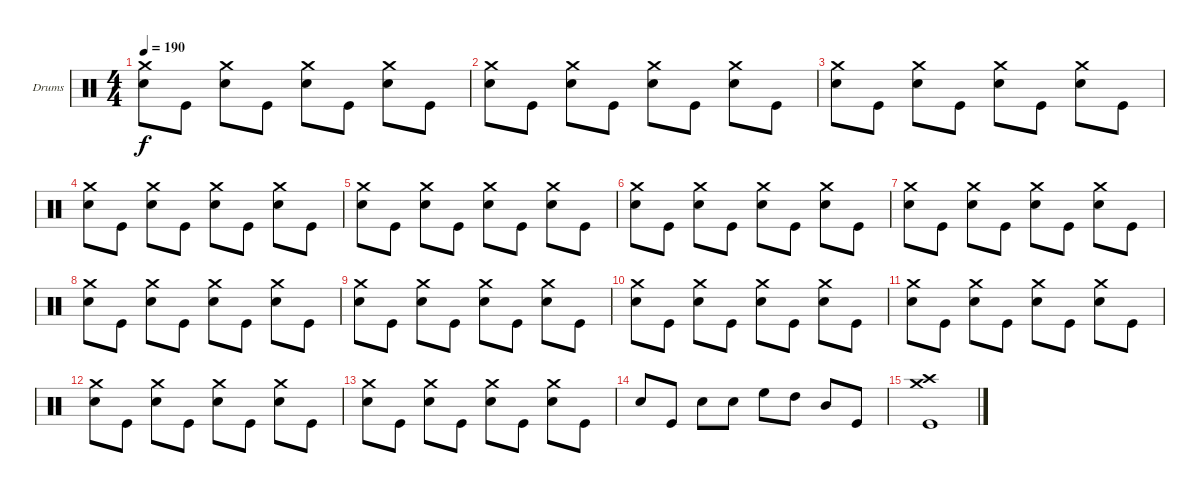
\bracketExtendMode groupsimilarinstruments
\firstSystemTrackNameOrientation horizontal
\otherSystemsTrackNameOrientation horizontal
\track ("Drumkit" "Drums") {instrument percussion}
\staff {score}
\articulation defaults
\ts (4 4)
\tempo 190
\clef neutral
\ks c
("Snare (hit) 2" "Crash medium (hit)").8{dy f} "Kick (hit)".8 ("Snare (hit) 2" "Crash medium (hit)").8 "Kick (hit)".8 ("Snare (hit) 2" "Crash medium (hit)").8 "Kick (hit)".8 ("Snare (hit) 2" "Crash medium (hit)").8 "Kick (hit)".8 |
("Snare (hit) 2" "Crash medium (hit)").8 "Kick (hit)".8 ("Snare (hit) 2" "Crash medium (hit)").8 "Kick (hit)".8 ("Snare (hit) 2" "Crash medium (hit)").8 "Kick (hit)".8 ("Snare (hit) 2" "Crash medium (hit)").8 "Kick (hit)".8 |
("Snare (hit) 2" "Crash medium (hit)").8 "Kick (hit)".8 ("Snare (hit) 2" "Crash medium (hit)").8 "Kick (hit)".8 ("Snare (hit) 2" "Crash medium (hit)").8 "Kick (hit)".8 ("Snare (hit) 2" "Crash medium (hit)").8 "Kick (hit)".8 |
("Snare (hit) 2" "Crash medium (hit)").8 "Kick (hit)".8 ("Snare (hit) 2" "Crash medium (hit)").8 "Kick (hit)".8 ("Snare (hit) 2" "Crash medium (hit)").8 "Kick (hit)".8 ("Snare (hit) 2" "Crash medium (hit)").8 "Kick (hit)".8 |
("Snare (hit) 2" "Crash medium (hit)").8 "Kick (hit)".8 ("Snare (hit) 2" "Crash medium (hit)").8 "Kick (hit)".8 ("Snare (hit) 2" "Crash medium (hit)").8 "Kick (hit)".8 ("Snare (hit) 2" "Crash medium (hit)").8 "Kick (hit)".8 |
("Snare (hit) 2" "Crash medium (hit)").8 "Kick (hit)".8 ("Snare (hit) 2" "Crash medium (hit)").8 "Kick (hit)".8 ("Snare (hit) 2" "Crash medium (hit)").8 "Kick (hit)".8 ("Snare (hit) 2" "Crash medium (hit)").8 "Kick (hit)".8 |
("Snare (hit) 2" "Crash medium (hit)").8 "Kick (hit)".8 ("Snare (hit) 2" "Crash medium (hit)").8 "Kick (hit)".8 ("Snare (hit) 2" "Crash medium (hit)").8 "Kick (hit)".8 ("Snare (hit) 2" "Crash medium (hit)").8 "Kick (hit)".8 |
("Snare (hit) 2" "Crash medium (hit)").8 "Kick (hit)".8 ("Snare (hit) 2" "Crash medium (hit)").8 "Kick (hit)".8 ("Snare (hit) 2" "Crash medium (hit)").8 "Kick (hit)".8 ("Snare (hit) 2" "Crash medium (hit)").8 "Kick (hit)".8 |
("Snare (hit) 2" "Crash medium (hit)").8 "Kick (hit)".8 ("Snare (hit) 2" "Crash medium (hit)").8 "Kick (hit)".8 ("Snare (hit) 2" "Crash medium (hit)").8 "Kick (hit)".8 ("Snare (hit) 2" "Crash medium (hit)").8 "Kick (hit)".8 |
("Snare (hit) 2" "Crash medium (hit)").8 "Kick (hit)".8 ("Snare (hit) 2" "Crash medium (hit)").8 "Kick (hit)".8 ("Snare (hit) 2" "Crash medium (hit)").8 "Kick (hit)".8 ("Snare (hit) 2" "Crash medium (hit)").8 "Kick (hit)".8 |
("Snare (hit) 2" "Crash medium (hit)").8 "Kick (hit)".8 ("Snare (hit) 2" "Crash medium (hit)").8 "Kick (hit)".8 ("Snare (hit) 2" "Crash medium (hit)").8 "Kick (hit)".8 ("Snare (hit) 2" "Crash medium (hit)").8 "Kick (hit)".8 |
("Snare (hit) 2" "Crash medium (hit)").8 "Kick (hit)".8 ("Snare (hit) 2" "Crash medium (hit)").8 "Kick (hit)".8 ("Snare (hit) 2" "Crash medium (hit)").8 "Kick (hit)".8 ("Snare (hit) 2" "Crash medium (hit)").8 "Kick (hit)".8 |
("Snare (hit) 2" "Crash medium (hit)").8 "Kick (hit)".8 ("Snare (hit) 2" "Crash medium (hit)").8 "Kick (hit)".8 ("Snare (hit) 2" "Crash medium (hit)").8 "Kick (hit)".8 ("Snare (hit) 2" "Crash medium (hit)").8 "Kick (hit)".8 |
"Snare (hit) 2".8 "Kick (hit)".8 "Snare (hit) 2".8 "Snare (hit) 2".8 "High Floor Tom (hit)".8 "High Tom (hit)".8 "Mid Tom (hit)".8 "Kick (hit)".8 |
("Crash high (hit)" "Crash medium (hit)" "Kick (hit)").1
